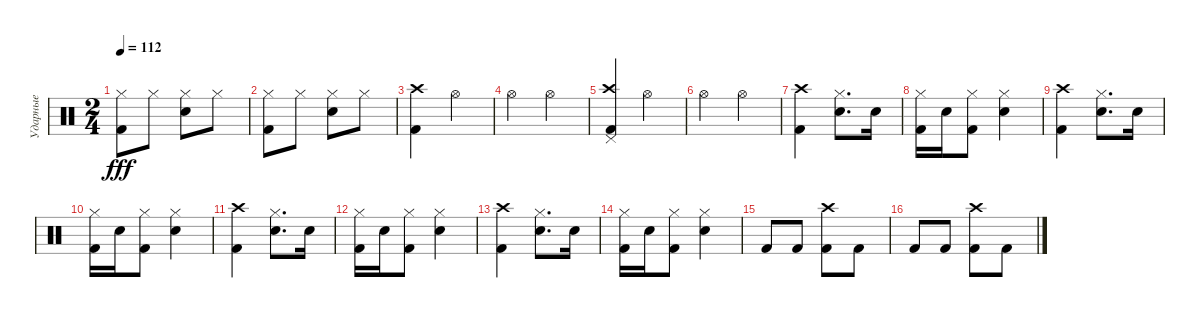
\track ("Ударные" "Ударные") {instrument percussion}
\staff {score}
\articulation defaults
\ts (2 4)
\tempo 112
\clef neutral
\ks c
("Kick (hit) 2" "Hi-Hat (closed)").8{dy fff} "Hi-Hat (closed)".8 ("Electric Snare (hit)" "Hi-Hat (closed)").8 "Hi-Hat (closed)".8 |
("Kick (hit) 2" "Hi-Hat (closed)").8 "Hi-Hat (closed)".8 ("Electric Snare (hit)" "Hi-Hat (closed)").8 "Hi-Hat (closed)".8 |
("Kick (hit) 2" "Crash high (hit)").4 "Hi-Hat (open)".4 |
"Hi-Hat (open)".4 "Hi-Hat (open)".4 |
("Pedal Hi-Hat (hit)" "Kick (hit) 2" "Crash high (hit)").4 "Hi-Hat (open)".4 |
"Hi-Hat (open)".4 "Hi-Hat (open)".4 |
("Kick (hit) 2" "Crash high (hit)").4 ("Hi-Hat (closed)" "Electric Snare (hit)").8{d} "Electric Snare (hit)".16 |
("Kick (hit) 2" "Hi-Hat (closed)").16 "Electric Snare (hit)".16 ("Kick (hit) 2" "Hi-Hat (closed)").8 ("Electric Snare (hit)" "Hi-Hat (closed)").4 |
("Kick (hit) 2" "Crash high (hit)").4 ("Hi-Hat (closed)" "Electric Snare (hit)").8{d} "Electric Snare (hit)".16 |
("Kick (hit) 2" "Hi-Hat (closed)").16 "Electric Snare (hit)".16 ("Kick (hit) 2" "Hi-Hat (closed)").8 ("Electric Snare (hit)" "Hi-Hat (closed)").4 |
("Kick (hit) 2" "Crash high (hit)").4 ("Hi-Hat (closed)" "Electric Snare (hit)").8{d} "Electric Snare (hit)".16 |
("Kick (hit) 2" "Hi-Hat (closed)").16 "Electric Snare (hit)".16 ("Kick (hit) 2" "Hi-Hat (closed)").8 ("Electric Snare (hit)" "Hi-Hat (closed)").4 |
("Kick (hit) 2" "Crash high (hit)").4 ("Electric Snare (hit)" "Hi-Hat (closed)").8{d} "Electric Snare (hit)".16 |
("Kick (hit) 2" "Hi-Hat (closed)").16 "Electric Snare (hit)".16 ("Kick (hit) 2" "Hi-Hat (closed)").8 ("Electric Snare (hit)" "Hi-Hat (closed)").4 |
"Kick (hit) 2".8 "Kick (hit) 2".8 ("Kick (hit) 2" "Crash high (hit)").8 "Kick (hit) 2".8 |
"Kick (hit) 2".8 "Kick (hit) 2".8 ("Crash high (hit)" "Kick (hit) 2").8 "Kick (hit) 2".8
